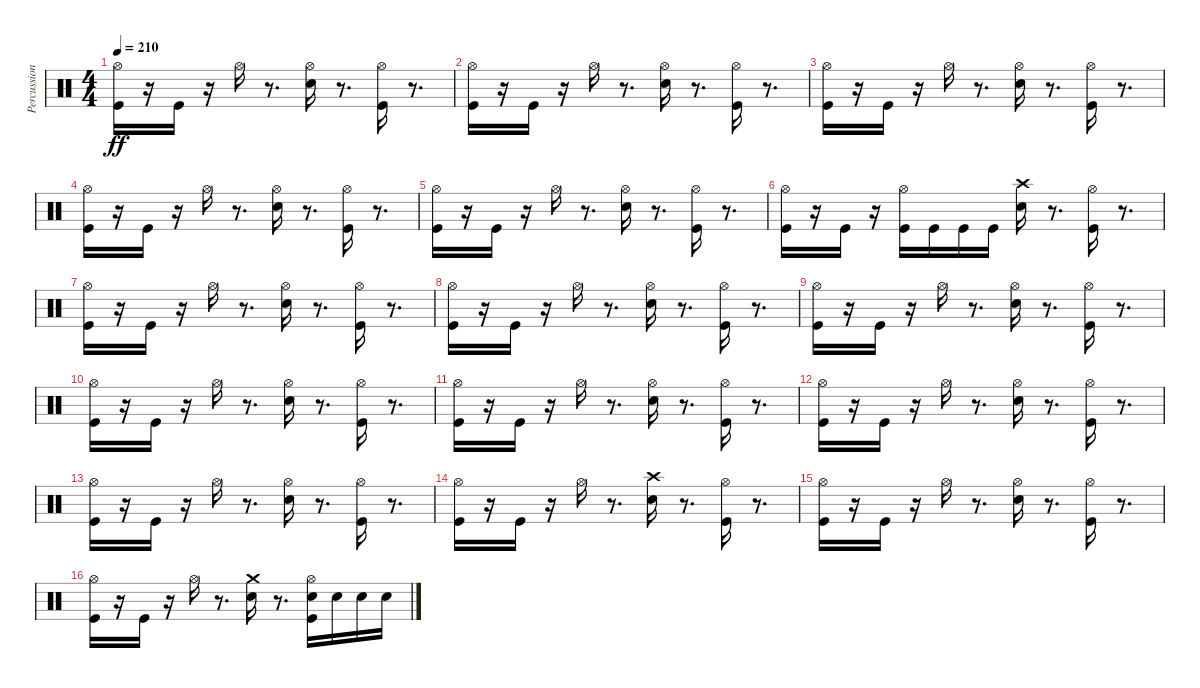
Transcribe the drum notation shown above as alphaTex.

\track ("Percussion" "Percussion") {instrument percussion}
\staff {score}
\articulation defaults
\ts (4 4)
\tempo 210
\clef neutral
\ks c
("Hi-Hat (open)" "Kick (hit)").16{dy ff} r.16 "Kick (hit)".16 r.16 "Hi-Hat (open)".16 r.8{d} ("Hi-Hat (open)" "Snare (hit) 2").16 r.8{d} ("Kick (hit)" "Hi-Hat (open)").16 r.8{d} |
("Hi-Hat (open)" "Kick (hit)").16 r.16 "Kick (hit)".16 r.16 "Hi-Hat (open)".16 r.8{d} ("Hi-Hat (open)" "Snare (hit) 2").16 r.8{d} ("Kick (hit)" "Hi-Hat (open)").16 r.8{d} |
("Hi-Hat (open)" "Kick (hit)").16 r.16 "Kick (hit)".16 r.16 "Hi-Hat (open)".16 r.8{d} ("Hi-Hat (open)" "Snare (hit) 2").16 r.8{d} ("Kick (hit)" "Hi-Hat (open)").16 r.8{d} |
("Hi-Hat (open)" "Kick (hit)").16 r.16 "Kick (hit)".16 r.16 "Hi-Hat (open)".16 r.8{d} ("Hi-Hat (open)" "Snare (hit) 2").16 r.8{d} ("Kick (hit)" "Hi-Hat (open)").16 r.8{d} |
("Hi-Hat (open)" "Kick (hit)").16 r.16 "Kick (hit)".16 r.16 "Hi-Hat (open)".16 r.8{d} ("Hi-Hat (open)" "Snare (hit) 2").16 r.8{d} ("Kick (hit)" "Hi-Hat (open)").16 r.8{d} |
("Hi-Hat (open)" "Kick (hit)").16 r.16 "Kick (hit)".16 r.16 ("Kick (hit)" "Hi-Hat (open)").16 "Kick (hit)".16 "Kick (hit)".16 "Kick (hit)".16 ("Crash high (hit)" "Snare (hit) 2").16 r.8{d} ("Kick (hit)" "Hi-Hat (open)").16 r.8{d} |
("Hi-Hat (open)" "Kick (hit)").16 r.16 "Kick (hit)".16 r.16 "Hi-Hat (open)".16 r.8{d} ("Hi-Hat (open)" "Snare (hit) 2").16 r.8{d} ("Kick (hit)" "Hi-Hat (open)").16 r.8{d} |
("Hi-Hat (open)" "Kick (hit)").16 r.16 "Kick (hit)".16 r.16 "Hi-Hat (open)".16 r.8{d} ("Hi-Hat (open)" "Snare (hit) 2").16 r.8{d} ("Kick (hit)" "Hi-Hat (open)").16 r.8{d} |
("Hi-Hat (open)" "Kick (hit)").16 r.16 "Kick (hit)".16 r.16 "Hi-Hat (open)".16 r.8{d} ("Hi-Hat (open)" "Snare (hit) 2").16 r.8{d} ("Kick (hit)" "Hi-Hat (open)").16 r.8{d} |
("Hi-Hat (open)" "Kick (hit)").16 r.16 "Kick (hit)".16 r.16 "Hi-Hat (open)".16 r.8{d} ("Hi-Hat (open)" "Snare (hit) 2").16 r.8{d} ("Kick (hit)" "Hi-Hat (open)").16 r.8{d} |
("Hi-Hat (open)" "Kick (hit)").16 r.16 "Kick (hit)".16 r.16 "Hi-Hat (open)".16 r.8{d} ("Hi-Hat (open)" "Snare (hit) 2").16 r.8{d} ("Kick (hit)" "Hi-Hat (open)").16 r.8{d} |
("Hi-Hat (open)" "Kick (hit)").16 r.16 "Kick (hit)".16 r.16 "Hi-Hat (open)".16 r.8{d} ("Hi-Hat (open)" "Snare (hit) 2").16 r.8{d} ("Kick (hit)" "Hi-Hat (open)").16 r.8{d} |
("Hi-Hat (open)" "Kick (hit)").16 r.16 "Kick (hit)".16 r.16 "Hi-Hat (open)".16 r.8{d} ("Hi-Hat (open)" "Snare (hit) 2").16 r.8{d} ("Kick (hit)" "Hi-Hat (open)").16 r.8{d} |
("Hi-Hat (open)" "Kick (hit)").16 r.16 "Kick (hit)".16 r.16 "Hi-Hat (open)".16 r.8{d} ("Crash high (hit)" "Snare (hit) 2").16 r.8{d} ("Kick (hit)" "Hi-Hat (open)").16 r.8{d} |
("Hi-Hat (open)" "Kick (hit)").16 r.16 "Kick (hit)".16 r.16 "Hi-Hat (open)".16 r.8{d} ("Hi-Hat (open)" "Snare (hit) 2").16 r.8{d} ("Kick (hit)" "Hi-Hat (open)").16 r.8{d} |
("Hi-Hat (open)" "Kick (hit)").16 r.16 "Kick (hit)".16 r.16 "Hi-Hat (open)".16 r.8{d} ("Crash medium (hit)" "Snare (hit) 2").16 r.8{d} ("Snare (hit) 2" "Kick (hit)" "Hi-Hat (open)").16 "Snare (hit) 2".16 "Snare (hit) 2".16 "Snare (hit) 2".16
